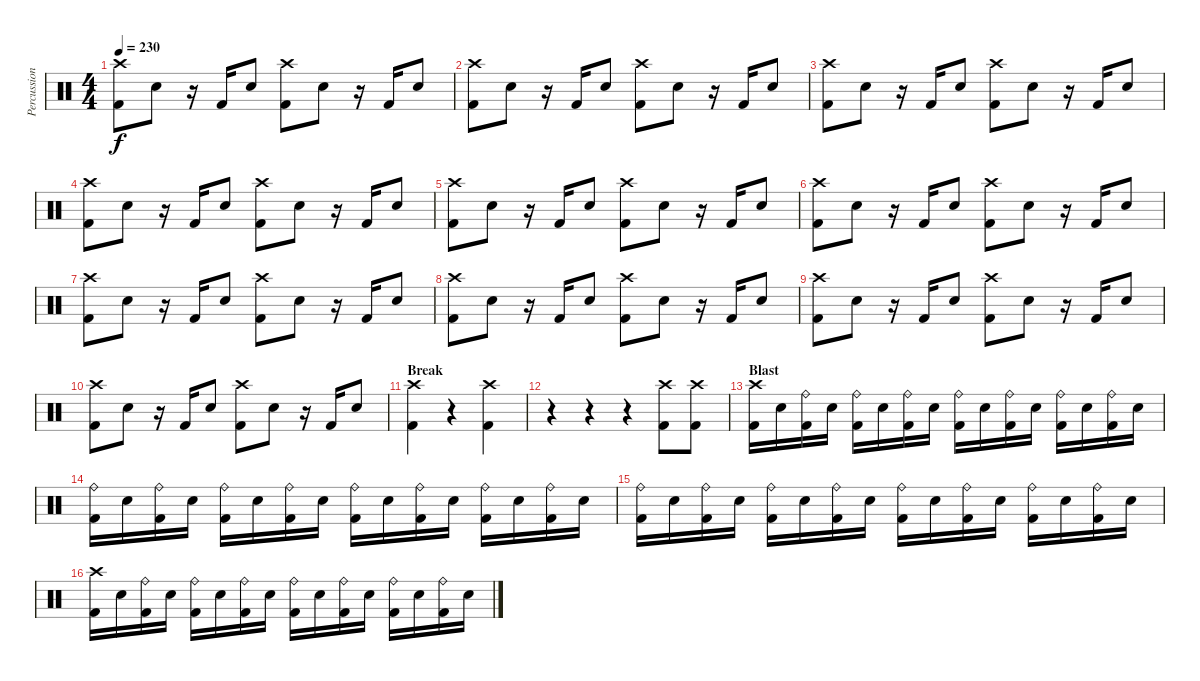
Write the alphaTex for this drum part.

\track ("Percussion" "Percussion") {instrument percussion}
\staff {score}
\articulation defaults
\ts (4 4)
\tempo 230
\clef neutral
\ks c
("Kick (hit) 2" "Crash high (hit)").8{dy f} "Snare (hit) 2".8 r.16 "Kick (hit) 2".16 "Snare (hit) 2".8 ("Kick (hit) 2" "Crash high (hit)").8 "Snare (hit) 2".8 r.16 "Kick (hit) 2".16 "Snare (hit) 2".8 |
("Kick (hit) 2" "Crash high (hit)").8 "Snare (hit) 2".8 r.16 "Kick (hit) 2".16 "Snare (hit) 2".8 ("Kick (hit) 2" "Crash high (hit)").8 "Snare (hit) 2".8 r.16 "Kick (hit) 2".16 "Snare (hit) 2".8 |
("Kick (hit) 2" "Crash high (hit)").8 "Snare (hit) 2".8 r.16 "Kick (hit) 2".16 "Snare (hit) 2".8 ("Kick (hit) 2" "Crash high (hit)").8 "Snare (hit) 2".8 r.16 "Kick (hit) 2".16 "Snare (hit) 2".8 |
("Kick (hit) 2" "Crash high (hit)").8 "Snare (hit) 2".8 r.16 "Kick (hit) 2".16 "Snare (hit) 2".8 ("Kick (hit) 2" "Crash high (hit)").8 "Snare (hit) 2".8 r.16 "Kick (hit) 2".16 "Snare (hit) 2".8 |
("Kick (hit) 2" "Crash high (hit)").8 "Snare (hit) 2".8 r.16 "Kick (hit) 2".16 "Snare (hit) 2".8 ("Kick (hit) 2" "Crash high (hit)").8 "Snare (hit) 2".8 r.16 "Kick (hit) 2".16 "Snare (hit) 2".8 |
("Kick (hit) 2" "Crash high (hit)").8 "Snare (hit) 2".8 r.16 "Kick (hit) 2".16 "Snare (hit) 2".8 ("Kick (hit) 2" "Crash high (hit)").8 "Snare (hit) 2".8 r.16 "Kick (hit) 2".16 "Snare (hit) 2".8 |
("Kick (hit) 2" "Crash high (hit)").8 "Snare (hit) 2".8 r.16 "Kick (hit) 2".16 "Snare (hit) 2".8 ("Kick (hit) 2" "Crash high (hit)").8 "Snare (hit) 2".8 r.16 "Kick (hit) 2".16 "Snare (hit) 2".8 |
("Kick (hit) 2" "Crash high (hit)").8 "Snare (hit) 2".8 r.16 "Kick (hit) 2".16 "Snare (hit) 2".8 ("Kick (hit) 2" "Crash high (hit)").8 "Snare (hit) 2".8 r.16 "Kick (hit) 2".16 "Snare (hit) 2".8 |
("Kick (hit) 2" "Crash high (hit)").8 "Snare (hit) 2".8 r.16 "Kick (hit) 2".16 "Snare (hit) 2".8 ("Kick (hit) 2" "Crash high (hit)").8 "Snare (hit) 2".8 r.16 "Kick (hit) 2".16 "Snare (hit) 2".8 |
("Kick (hit) 2" "Crash high (hit)").8 "Snare (hit) 2".8 r.16 "Kick (hit) 2".16 "Snare (hit) 2".8 ("Kick (hit) 2" "Crash high (hit)").8 "Snare (hit) 2".8 r.16 "Kick (hit) 2".16 "Snare (hit) 2".8 |
\section ("" "Break")
("Kick (hit) 2" "Crash high (hit)").4 r.4 ("Kick (hit) 2" "Crash high (hit)").4 |
r.4 r.4 r.4 ("Kick (hit) 2" "Crash high (hit)").8 ("Kick (hit) 2" "Crash high (hit)").8 |
\section ("" "Blast")
("Kick (hit) 2" "Crash high (hit)").16 "Snare (hit) 2".16 ("Kick (hit) 2" "Ride (bell)").16 "Snare (hit) 2".16 ("Kick (hit) 2" "Ride (bell)").16 "Snare (hit) 2".16 ("Kick (hit) 2" "Ride (bell)").16 "Snare (hit) 2".16 ("Kick (hit) 2" "Ride (bell)").16 "Snare (hit) 2".16 ("Kick (hit) 2" "Ride (bell)").16 "Snare (hit) 2".16 ("Kick (hit) 2" "Ride (bell)").16 "Snare (hit) 2".16 ("Kick (hit) 2" "Ride (bell)").16 "Snare (hit) 2".16 |
("Kick (hit) 2" "Ride (bell)").16 "Snare (hit) 2".16 ("Kick (hit) 2" "Ride (bell)").16 "Snare (hit) 2".16 ("Kick (hit) 2" "Ride (bell)").16 "Snare (hit) 2".16 ("Kick (hit) 2" "Ride (bell)").16 "Snare (hit) 2".16 ("Kick (hit) 2" "Ride (bell)").16 "Snare (hit) 2".16 ("Kick (hit) 2" "Ride (bell)").16 "Snare (hit) 2".16 ("Kick (hit) 2" "Ride (bell)").16 "Snare (hit) 2".16 ("Kick (hit) 2" "Ride (bell)").16 "Snare (hit) 2".16 |
("Kick (hit) 2" "Ride (bell)").16 "Snare (hit) 2".16 ("Kick (hit) 2" "Ride (bell)").16 "Snare (hit) 2".16 ("Kick (hit) 2" "Ride (bell)").16 "Snare (hit) 2".16 ("Kick (hit) 2" "Ride (bell)").16 "Snare (hit) 2".16 ("Kick (hit) 2" "Ride (bell)").16 "Snare (hit) 2".16 ("Kick (hit) 2" "Ride (bell)").16 "Snare (hit) 2".16 ("Kick (hit) 2" "Ride (bell)").16 "Snare (hit) 2".16 ("Kick (hit) 2" "Ride (bell)").16 "Snare (hit) 2".16 |
("Kick (hit) 2" "Crash high (hit)").16 "Snare (hit) 2".16 ("Kick (hit) 2" "Ride (bell)").16 "Snare (hit) 2".16 ("Kick (hit) 2" "Ride (bell)").16 "Snare (hit) 2".16 ("Kick (hit) 2" "Ride (bell)").16 "Snare (hit) 2".16 ("Kick (hit) 2" "Ride (bell)").16 "Snare (hit) 2".16 ("Kick (hit) 2" "Ride (bell)").16 "Snare (hit) 2".16 ("Kick (hit) 2" "Ride (bell)").16 "Snare (hit) 2".16 ("Kick (hit) 2" "Ride (bell)").16 "Snare (hit) 2".16
